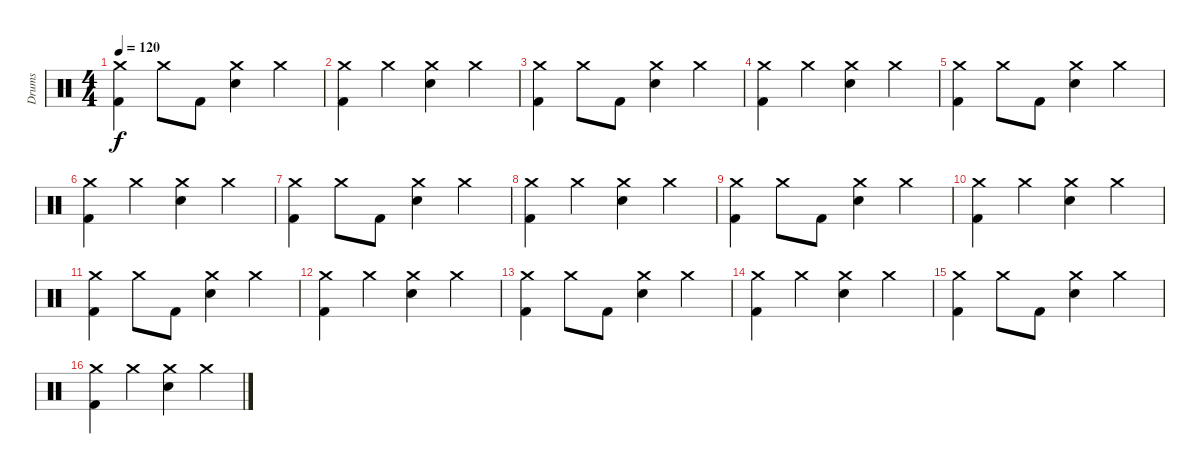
\track ("Drums" "Drums") {instrument percussion}
\staff {score}
\articulation defaults
\ts (4 4)
\tempo 120
\clef neutral
\ks c
("Crash medium (hit)" "Kick (hit) 2").4{dy f} "Crash medium (hit)".8 "Kick (hit) 2".8 ("Crash medium (hit)" "Snare (hit) 2").4 "Crash medium (hit)".4 |
("Crash medium (hit)" "Kick (hit) 2").4 "Crash medium (hit)".4 ("Crash medium (hit)" "Snare (hit) 2").4 "Crash medium (hit)".4 |
("Crash medium (hit)" "Kick (hit) 2").4 "Crash medium (hit)".8 "Kick (hit) 2".8 ("Crash medium (hit)" "Snare (hit) 2").4 "Crash medium (hit)".4 |
("Crash medium (hit)" "Kick (hit) 2").4 "Crash medium (hit)".4 ("Crash medium (hit)" "Snare (hit) 2").4 "Crash medium (hit)".4 |
("Crash medium (hit)" "Kick (hit) 2").4 "Crash medium (hit)".8 "Kick (hit) 2".8 ("Crash medium (hit)" "Snare (hit) 2").4 "Crash medium (hit)".4 |
("Crash medium (hit)" "Kick (hit) 2").4 "Crash medium (hit)".4 ("Crash medium (hit)" "Snare (hit) 2").4 "Crash medium (hit)".4 |
("Crash medium (hit)" "Kick (hit) 2").4 "Crash medium (hit)".8 "Kick (hit) 2".8 ("Crash medium (hit)" "Snare (hit) 2").4 "Crash medium (hit)".4 |
("Crash medium (hit)" "Kick (hit) 2").4 "Crash medium (hit)".4 ("Crash medium (hit)" "Snare (hit) 2").4 "Crash medium (hit)".4 |
("Crash medium (hit)" "Kick (hit) 2").4 "Crash medium (hit)".8 "Kick (hit) 2".8 ("Crash medium (hit)" "Snare (hit) 2").4 "Crash medium (hit)".4 |
("Crash medium (hit)" "Kick (hit) 2").4 "Crash medium (hit)".4 ("Crash medium (hit)" "Snare (hit) 2").4 "Crash medium (hit)".4 |
("Crash medium (hit)" "Kick (hit) 2").4 "Crash medium (hit)".8 "Kick (hit) 2".8 ("Crash medium (hit)" "Snare (hit) 2").4 "Crash medium (hit)".4 |
("Crash medium (hit)" "Kick (hit) 2").4 "Crash medium (hit)".4 ("Crash medium (hit)" "Snare (hit) 2").4 "Crash medium (hit)".4 |
("Crash medium (hit)" "Kick (hit) 2").4 "Crash medium (hit)".8 "Kick (hit) 2".8 ("Crash medium (hit)" "Snare (hit) 2").4 "Crash medium (hit)".4 |
("Crash medium (hit)" "Kick (hit) 2").4 "Crash medium (hit)".4 ("Crash medium (hit)" "Snare (hit) 2").4 "Crash medium (hit)".4 |
("Crash medium (hit)" "Kick (hit) 2").4 "Crash medium (hit)".8 "Kick (hit) 2".8 ("Crash medium (hit)" "Snare (hit) 2").4 "Crash medium (hit)".4 |
("Crash medium (hit)" "Kick (hit) 2").4 "Crash medium (hit)".4 ("Crash medium (hit)" "Snare (hit) 2").4 "Crash medium (hit)".4
